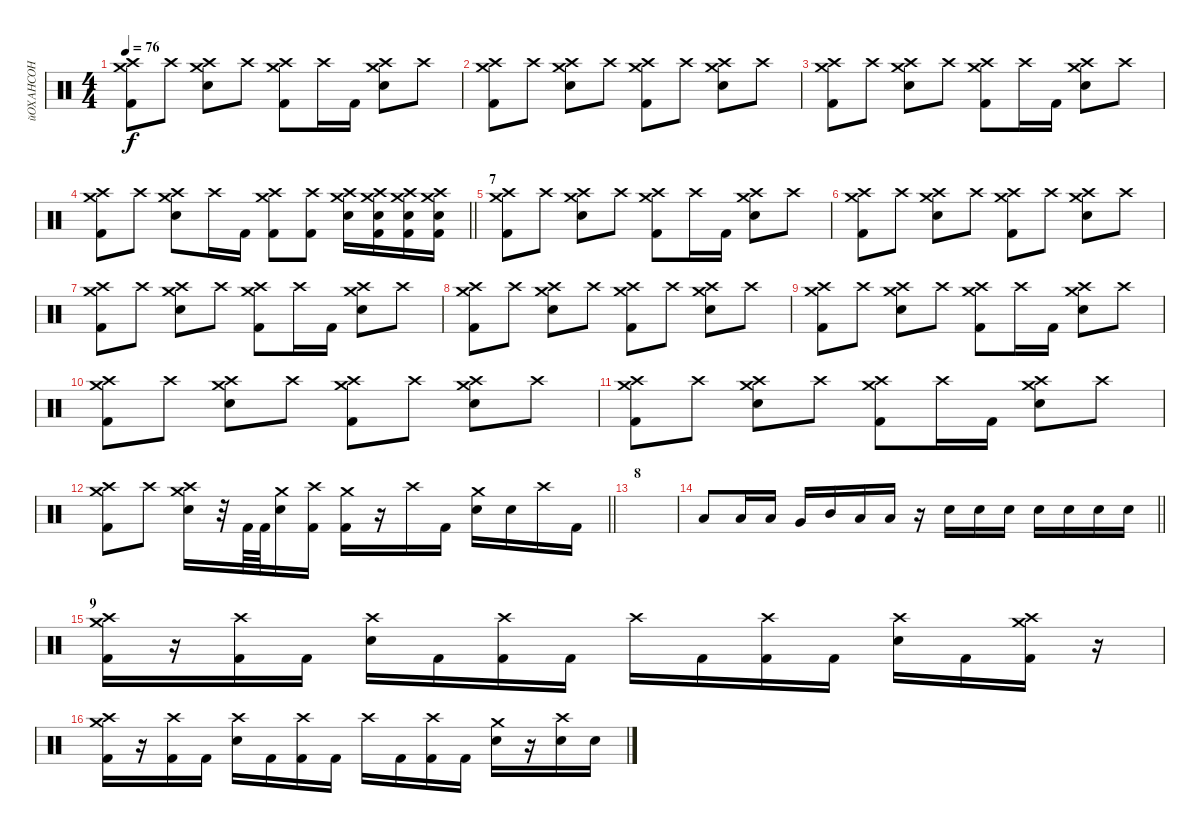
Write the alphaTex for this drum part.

\track ("йОХАНСОН" "йОХАНСОН") {instrument percussion}
\staff {score}
\articulation defaults
\ts (4 4)
\tempo 76
\clef neutral
\ks c
("Crash high (hit)" "Crash medium (hit)" "Kick (hit) 2").8{dy f} "Crash high (hit)".8 ("Crash high (hit)" "Crash medium (hit)" "Snare (hit) 2").8 "Crash high (hit)".8 ("Crash high (hit)" "Crash medium (hit)" "Kick (hit) 2").8 "Crash high (hit)".16 "Kick (hit) 2".16 ("Crash high (hit)" "Crash medium (hit)" "Snare (hit) 2").8 "Crash high (hit)".8 |
("Crash high (hit)" "Crash medium (hit)" "Kick (hit) 2").8 "Crash high (hit)".8 ("Crash high (hit)" "Crash medium (hit)" "Snare (hit) 2").8 "Crash high (hit)".8 ("Crash high (hit)" "Crash medium (hit)" "Kick (hit) 2").8 "Crash high (hit)".8 ("Crash high (hit)" "Crash medium (hit)" "Snare (hit) 2").8 "Crash high (hit)".8 |
("Crash high (hit)" "Crash medium (hit)" "Kick (hit) 2").8 "Crash high (hit)".8 ("Crash high (hit)" "Crash medium (hit)" "Snare (hit) 2").8 "Crash high (hit)".8 ("Crash high (hit)" "Crash medium (hit)" "Kick (hit) 2").8 "Crash high (hit)".16 "Kick (hit) 2".16 ("Crash high (hit)" "Crash medium (hit)" "Snare (hit) 2").8 "Crash high (hit)".8 |
\barLineRight lightlight
("Crash high (hit)" "Crash medium (hit)" "Kick (hit) 2").8 "Crash high (hit)".8 ("Crash high (hit)" "Crash medium (hit)" "Snare (hit) 2").8 "Crash high (hit)".16 "Kick (hit) 2".16 ("Crash high (hit)" "Crash medium (hit)" "Kick (hit) 2").8 ("Crash high (hit)" "Kick (hit) 2").8 ("Crash high (hit)" "Crash medium (hit)" "Snare (hit) 2").16 ("Crash high (hit)" "Crash medium (hit)" "Snare (hit) 2" "Kick (hit) 2").16 ("Crash high (hit)" "Crash medium (hit)" "Snare (hit) 2" "Kick (hit) 2").16 ("Crash high (hit)" "Crash medium (hit)" "Snare (hit) 2" "Kick (hit) 2").16 |
\section ("" "7")
("Crash high (hit)" "Crash medium (hit)" "Kick (hit) 2").8 "Crash high (hit)".8 ("Crash high (hit)" "Crash medium (hit)" "Snare (hit) 2").8 "Crash high (hit)".8 ("Crash high (hit)" "Crash medium (hit)" "Kick (hit) 2").8 "Crash high (hit)".16 "Kick (hit) 2".16 ("Crash high (hit)" "Crash medium (hit)" "Snare (hit) 2").8 "Crash high (hit)".8 |
("Crash high (hit)" "Crash medium (hit)" "Kick (hit) 2").8 "Crash high (hit)".8 ("Crash high (hit)" "Crash medium (hit)" "Snare (hit) 2").8 "Crash high (hit)".8 ("Crash high (hit)" "Crash medium (hit)" "Kick (hit) 2").8 "Crash high (hit)".8 ("Crash high (hit)" "Crash medium (hit)" "Snare (hit) 2").8 "Crash high (hit)".8 |
("Crash high (hit)" "Crash medium (hit)" "Kick (hit) 2").8 "Crash high (hit)".8 ("Crash high (hit)" "Crash medium (hit)" "Snare (hit) 2").8 "Crash high (hit)".8 ("Crash high (hit)" "Crash medium (hit)" "Kick (hit) 2").8 "Crash high (hit)".16 "Kick (hit) 2".16 ("Crash high (hit)" "Crash medium (hit)" "Snare (hit) 2").8 "Crash high (hit)".8 |
("Crash high (hit)" "Crash medium (hit)" "Kick (hit) 2").8 "Crash high (hit)".8 ("Crash high (hit)" "Crash medium (hit)" "Snare (hit) 2").8 "Crash high (hit)".8 ("Crash high (hit)" "Crash medium (hit)" "Kick (hit) 2").8 "Crash high (hit)".8 ("Crash high (hit)" "Crash medium (hit)" "Snare (hit) 2").8 "Crash high (hit)".8 |
("Crash high (hit)" "Crash medium (hit)" "Kick (hit) 2").8 "Crash high (hit)".8 ("Crash high (hit)" "Crash medium (hit)" "Snare (hit) 2").8 "Crash high (hit)".8 ("Crash high (hit)" "Crash medium (hit)" "Kick (hit) 2").8 "Crash high (hit)".16 "Kick (hit) 2".16 ("Crash high (hit)" "Crash medium (hit)" "Snare (hit) 2").8 "Crash high (hit)".8 |
("Crash high (hit)" "Crash medium (hit)" "Kick (hit) 2").8 "Crash high (hit)".8 ("Crash high (hit)" "Crash medium (hit)" "Snare (hit) 2").8 "Crash high (hit)".8 ("Crash high (hit)" "Crash medium (hit)" "Kick (hit) 2").8 "Crash high (hit)".8 ("Crash high (hit)" "Crash medium (hit)" "Snare (hit) 2").8 "Crash high (hit)".8 |
("Crash high (hit)" "Crash medium (hit)" "Kick (hit) 2").8 "Crash high (hit)".8 ("Crash high (hit)" "Crash medium (hit)" "Snare (hit) 2").8 "Crash high (hit)".8 ("Crash high (hit)" "Crash medium (hit)" "Kick (hit) 2").8 "Crash high (hit)".16 "Kick (hit) 2".16 ("Crash high (hit)" "Crash medium (hit)" "Snare (hit) 2").8 "Crash high (hit)".8 |
\barLineRight lightlight
("Crash high (hit)" "Crash medium (hit)" "Kick (hit) 2").8 "Crash high (hit)".8 ("Crash high (hit)" "Crash medium (hit)" "Snare (hit) 2").16 r.32 "Kick (hit) 2".64 "Kick (hit) 2".64 ("Crash medium (hit)" "Snare (hit) 2").16 ("Crash high (hit)" "Kick (hit) 2").16 ("Crash medium (hit)" "Kick (hit) 2").16 r.16 "Crash high (hit)".16 "Kick (hit) 2".16 ("Crash medium (hit)" "Snare (hit) 2").16 "Snare (hit) 2".16 "Crash high (hit)".16 "Kick (hit) 2".16 |
\section ("" "8")
|
\barLineRight lightlight "Low Floor Tom (hit)".8 "Low Floor Tom (hit)".16 "Low Floor Tom (hit)".16 "Very Low Tom (hit)".16 "Mid Tom (hit)".16 "Low Floor Tom (hit)".16 "Low Floor Tom (hit)".16
r.16 "Snare (hit) 2".16 "Snare (hit) 2".16 "Snare (hit) 2".16 "Snare (hit) 2".16 "Snare (hit) 2".16 "Snare (hit) 2".16 "Snare (hit) 2".16 |
\section ("" "9")
("Crash high (hit)" "Crash medium (hit)" "Kick (hit) 2").16 r.16 ("Crash high (hit)" "Kick (hit) 2").16 "Kick (hit) 2".16 ("Crash high (hit)" "Snare (hit) 2").16 "Kick (hit) 2".16 ("Crash high (hit)" "Kick (hit) 2").16 "Kick (hit) 2".16 "Crash high (hit)".16 "Kick (hit) 2".16 ("Crash high (hit)" "Kick (hit) 2").16 "Kick (hit) 2".16 ("Crash high (hit)" "Snare (hit) 2").16 "Kick (hit) 2".16 ("Crash high (hit)" "Crash medium (hit)" "Kick (hit) 2").16 r.16 |
("Crash high (hit)" "Crash medium (hit)" "Kick (hit) 2").16 r.16 ("Crash high (hit)" "Kick (hit) 2").16 "Kick (hit) 2".16 ("Crash high (hit)" "Snare (hit) 2").16 "Kick (hit) 2".16 ("Crash high (hit)" "Kick (hit) 2").16 "Kick (hit) 2".16 "Crash high (hit)".16 "Kick (hit) 2".16 ("Crash high (hit)" "Kick (hit) 2").16 "Kick (hit) 2".16 ("Crash medium (hit)" "Snare (hit) 2").16 r.16 ("Crash high (hit)" "Snare (hit) 2").16 "Snare (hit) 2".16
